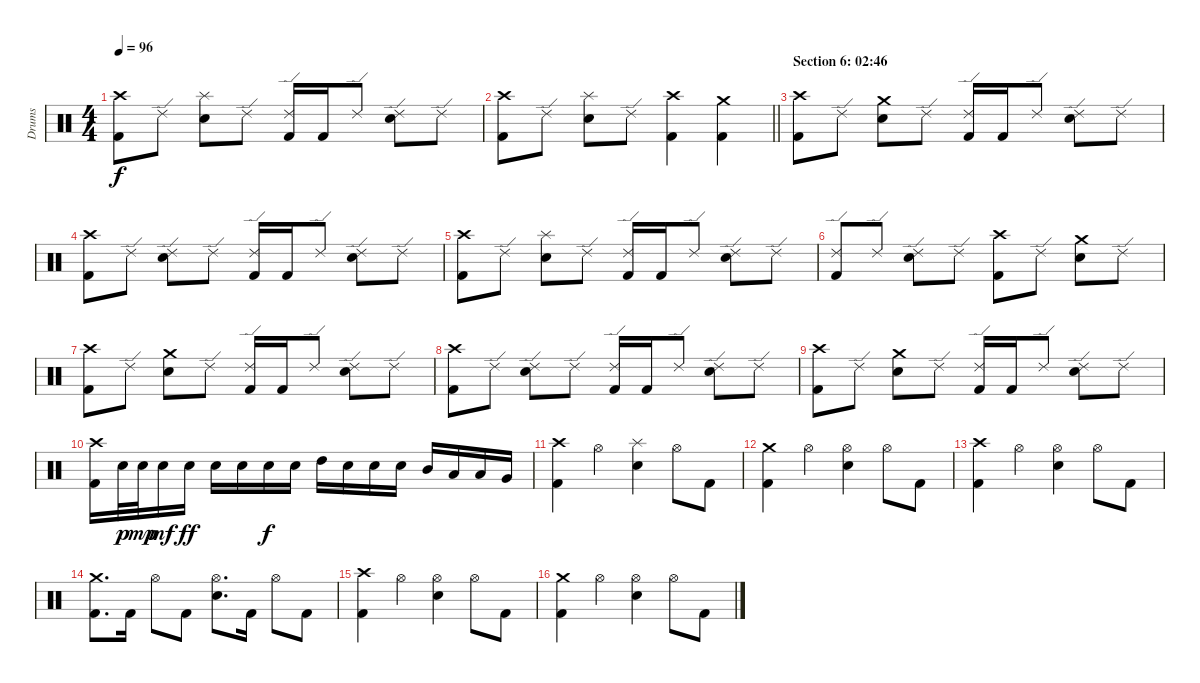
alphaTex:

\track ("Drums" "Drums") {instrument percussion}
\staff {score}
\articulation defaults
\ts (4 4)
\tempo 96
\clef neutral
\ks c
("Crash high (hit)" "Kick (hit) 2").8{dy f} "Ride (edge) 2".8 ("Splash (hit)" "Electric Snare (hit)").8 "Ride (edge) 2".8 ("Ride (edge) 2" "Kick (hit) 2").16 "Kick (hit) 2".16 "Ride (edge) 2".8 ("Ride (edge) 2" "Electric Snare (hit)").8 "Ride (edge) 2".8 |
\barLineRight lightlight
("Crash high (hit)" "Kick (hit) 2").8 "Ride (edge) 2".8 ("Splash (hit)" "Electric Snare (hit)").8 "Ride (edge) 2".8 ("Crash high (hit)" "Kick (hit) 2").4 ("Crash medium (hit)" "Kick (hit) 2").4 |
\section ("" "Section 6: 02:46")
("Crash high (hit)" "Kick (hit) 2").8 "Ride (edge) 2".8 ("Crash medium (hit)" "Electric Snare (hit)").8 "Ride (edge) 2".8 ("Ride (edge) 2" "Kick (hit) 2").16 "Kick (hit) 2".16 "Ride (edge) 2".8 ("Ride (edge) 2" "Electric Snare (hit)").8 "Ride (edge) 2".8 |
("Crash high (hit)" "Kick (hit) 2").8 "Ride (edge) 2".8 ("Ride (edge) 2" "Electric Snare (hit)").8 "Ride (edge) 2".8 ("Ride (edge) 2" "Kick (hit) 2").16 "Kick (hit) 2".16 "Ride (edge) 2".8 ("Ride (edge) 2" "Electric Snare (hit)").8 "Ride (edge) 2".8 |
("Crash high (hit)" "Kick (hit) 2").8 "Ride (edge) 2".8 ("Splash (hit)" "Electric Snare (hit)").8 "Ride (edge) 2".8 ("Ride (edge) 2" "Kick (hit) 2").16 "Kick (hit) 2".16 "Ride (edge) 2".8 ("Ride (edge) 2" "Electric Snare (hit)").8 "Ride (edge) 2".8 |
("Ride (edge) 2" "Kick (hit) 2").8 "Ride (edge) 2".8 ("Ride (edge) 2" "Electric Snare (hit)").8 "Ride (edge) 2".8 ("Crash high (hit)" "Kick (hit) 2").8 "Ride (edge) 2".8 ("Crash medium (hit)" "Electric Snare (hit)").8 "Ride (edge) 2".8 |
("Crash high (hit)" "Kick (hit) 2").8 "Ride (edge) 2".8 ("Crash medium (hit)" "Electric Snare (hit)").8 "Ride (edge) 2".8 ("Ride (edge) 2" "Kick (hit) 2").16 "Kick (hit) 2".16 "Ride (edge) 2".8 ("Ride (edge) 2" "Electric Snare (hit)").8 "Ride (edge) 2".8 |
("Crash high (hit)" "Kick (hit) 2").8 "Ride (edge) 2".8 ("Ride (edge) 2" "Electric Snare (hit)").8 "Ride (edge) 2".8 ("Ride (edge) 2" "Kick (hit) 2").16 "Kick (hit) 2".16 "Ride (edge) 2".8 ("Ride (edge) 2" "Electric Snare (hit)").8 "Ride (edge) 2".8 |
("Crash high (hit)" "Kick (hit) 2").8 "Ride (edge) 2".8 ("Crash medium (hit)" "Electric Snare (hit)").8 "Ride (edge) 2".8 ("Ride (edge) 2" "Kick (hit) 2").16 "Kick (hit) 2".16 "Ride (edge) 2".8 ("Ride (edge) 2" "Electric Snare (hit)").8 "Ride (edge) 2".8 |
("Crash high (hit)" "Kick (hit) 2").16 "Electric Snare (hit)".32{dy p} "Electric Snare (hit)".32{dy mp} "Electric Snare (hit)".16{dy mf} "Electric Snare (hit)".16{dy ff} "Electric Snare (hit)".16 "Electric Snare (hit)".16 "Electric Snare (hit)".16{dy f} "Electric Snare (hit)".16 "High Tom (hit)".16 "Electric Snare (hit)".16 "Electric Snare (hit)".16 "Electric Snare (hit)".16 "Mid Tom (hit)".16 "Low Tom (hit)".16 "Low Tom (hit)".16 "Very Low Tom (hit)".16 |
("Crash high (hit)" "Kick (hit) 2").4 "Hi-Hat (open)".4 ("Splash (hit)" "Electric Snare (hit)").4 "Hi-Hat (open)".8 "Kick (hit) 2".8 |
("Crash medium (hit)" "Kick (hit) 2").4 "Hi-Hat (open)".4 ("Hi-Hat (open)" "Electric Snare (hit)").4 "Hi-Hat (open)".8 "Kick (hit) 2".8 |
("Crash high (hit)" "Kick (hit) 2").4 "Hi-Hat (open)".4 ("Hi-Hat (open)" "Electric Snare (hit)").4 "Hi-Hat (open)".8 "Kick (hit) 2".8 |
("Crash medium (hit)" "Kick (hit) 2").8{d} "Kick (hit) 2".16 "Hi-Hat (open)".8 "Kick (hit) 2".8 ("Hi-Hat (open)" "Electric Snare (hit)").8{d} "Kick (hit) 2".16 "Hi-Hat (open)".8 "Kick (hit) 2".8 |
("Crash high (hit)" "Kick (hit) 2").4 "Hi-Hat (open)".4 ("Hi-Hat (open)" "Electric Snare (hit)").4 "Hi-Hat (open)".8 "Kick (hit) 2".8 |
("Crash medium (hit)" "Kick (hit) 2").4 "Hi-Hat (open)".4 ("Hi-Hat (open)" "Electric Snare (hit)").4 "Hi-Hat (open)".8 "Kick (hit) 2".8
